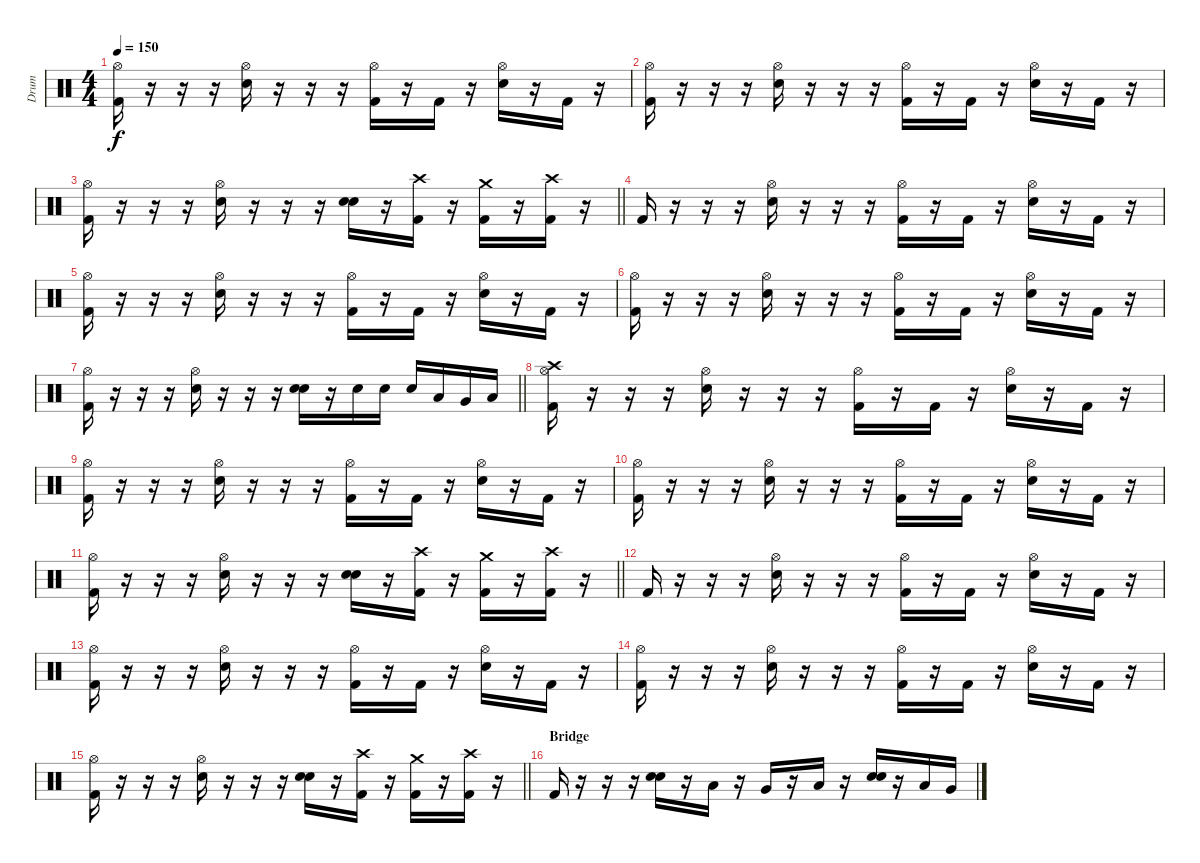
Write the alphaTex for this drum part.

\track ("Drum" "Drum") {instrument percussion}
\staff {score}
\articulation defaults
\ts (4 4)
\tempo 150
\clef neutral
\ks c
("Hi-Hat (open)" "Kick (hit) 2").16{dy f} r.16 r.16 r.16 ("Hi-Hat (open)" "Electric Snare (hit)").16 r.16 r.16 r.16 ("Hi-Hat (open)" "Kick (hit) 2").16 r.16 "Kick (hit) 2".16 r.16 ("Hi-Hat (open)" "Electric Snare (hit)").16 r.16 "Kick (hit) 2".16 r.16 |
("Hi-Hat (open)" "Kick (hit) 2").16 r.16 r.16 r.16 ("Hi-Hat (open)" "Electric Snare (hit)").16 r.16 r.16 r.16 ("Hi-Hat (open)" "Kick (hit) 2").16 r.16 "Kick (hit) 2".16 r.16 ("Hi-Hat (open)" "Electric Snare (hit)").16 r.16 "Kick (hit) 2".16 r.16 |
\barLineRight lightlight
("Hi-Hat (open)" "Kick (hit) 2").16 r.16 r.16 r.16 ("Hi-Hat (open)" "Electric Snare (hit)").16 r.16 r.16 r.16 ("Electric Snare (hit)" "Electric Snare (hit)").16 r.16 ("Crash high (hit)" "Kick (hit) 2").16 r.16 ("Crash medium (hit)" "Kick (hit) 2").16 r.16 ("Crash high (hit)" "Kick (hit) 2").16 r.16 |
"Kick (hit) 2".16 r.16 r.16 r.16 ("Hi-Hat (open)" "Electric Snare (hit)").16 r.16 r.16 r.16 ("Hi-Hat (open)" "Kick (hit) 2").16 r.16 "Kick (hit) 2".16 r.16 ("Hi-Hat (open)" "Electric Snare (hit)").16 r.16 "Kick (hit) 2".16 r.16 |
("Hi-Hat (open)" "Kick (hit) 2").16 r.16 r.16 r.16 ("Hi-Hat (open)" "Electric Snare (hit)").16 r.16 r.16 r.16 ("Hi-Hat (open)" "Kick (hit) 2").16 r.16 "Kick (hit) 2".16 r.16 ("Hi-Hat (open)" "Electric Snare (hit)").16 r.16 "Kick (hit) 2".16 r.16 |
("Hi-Hat (open)" "Kick (hit) 2").16 r.16 r.16 r.16 ("Hi-Hat (open)" "Electric Snare (hit)").16 r.16 r.16 r.16 ("Hi-Hat (open)" "Kick (hit) 2").16 r.16 "Kick (hit) 2".16 r.16 ("Hi-Hat (open)" "Electric Snare (hit)").16 r.16 "Kick (hit) 2".16 r.16 |
\barLineRight lightlight
("Hi-Hat (open)" "Kick (hit) 2").16 r.16 r.16 r.16 ("Hi-Hat (open)" "Electric Snare (hit)").16 r.16 r.16 r.16 ("Electric Snare (hit)" "Electric Snare (hit)").16 r.16 "Electric Snare (hit)".16 "Electric Snare (hit)".16 "Electric Snare (hit)".16 "Low Floor Tom (hit)".16 "Very Low Tom (hit)".16 "Low Floor Tom (hit)".16 |
("Hi-Hat (open)" "Crash high (hit)" "Kick (hit) 2").16 r.16 r.16 r.16 ("Hi-Hat (open)" "Electric Snare (hit)").16 r.16 r.16 r.16 ("Hi-Hat (open)" "Kick (hit) 2").16 r.16 "Kick (hit) 2".16 r.16 ("Hi-Hat (open)" "Electric Snare (hit)").16 r.16 "Kick (hit) 2".16 r.16 |
("Hi-Hat (open)" "Kick (hit) 2").16 r.16 r.16 r.16 ("Hi-Hat (open)" "Electric Snare (hit)").16 r.16 r.16 r.16 ("Hi-Hat (open)" "Kick (hit) 2").16 r.16 "Kick (hit) 2".16 r.16 ("Hi-Hat (open)" "Electric Snare (hit)").16 r.16 "Kick (hit) 2".16 r.16 |
("Hi-Hat (open)" "Kick (hit) 2").16 r.16 r.16 r.16 ("Hi-Hat (open)" "Electric Snare (hit)").16 r.16 r.16 r.16 ("Hi-Hat (open)" "Kick (hit) 2").16 r.16 "Kick (hit) 2".16 r.16 ("Hi-Hat (open)" "Electric Snare (hit)").16 r.16 "Kick (hit) 2".16 r.16 |
\barLineRight lightlight
("Hi-Hat (open)" "Kick (hit) 2").16 r.16 r.16 r.16 ("Hi-Hat (open)" "Electric Snare (hit)").16 r.16 r.16 r.16 ("Electric Snare (hit)" "Electric Snare (hit)").16 r.16 ("Crash high (hit)" "Kick (hit) 2").16 r.16 ("Crash medium (hit)" "Kick (hit) 2").16 r.16 ("Crash high (hit)" "Kick (hit) 2").16 r.16 |
"Kick (hit) 2".16 r.16 r.16 r.16 ("Hi-Hat (open)" "Electric Snare (hit)").16 r.16 r.16 r.16 ("Hi-Hat (open)" "Kick (hit) 2").16 r.16 "Kick (hit) 2".16 r.16 ("Hi-Hat (open)" "Electric Snare (hit)").16 r.16 "Kick (hit) 2".16 r.16 |
("Hi-Hat (open)" "Kick (hit) 2").16 r.16 r.16 r.16 ("Hi-Hat (open)" "Electric Snare (hit)").16 r.16 r.16 r.16 ("Hi-Hat (open)" "Kick (hit) 2").16 r.16 "Kick (hit) 2".16 r.16 ("Hi-Hat (open)" "Electric Snare (hit)").16 r.16 "Kick (hit) 2".16 r.16 |
("Hi-Hat (open)" "Kick (hit) 2").16 r.16 r.16 r.16 ("Hi-Hat (open)" "Electric Snare (hit)").16 r.16 r.16 r.16 ("Hi-Hat (open)" "Kick (hit) 2").16 r.16 "Kick (hit) 2".16 r.16 ("Hi-Hat (open)" "Electric Snare (hit)").16 r.16 "Kick (hit) 2".16 r.16 |
\barLineRight lightlight
("Hi-Hat (open)" "Kick (hit) 2").16 r.16 r.16 r.16 ("Hi-Hat (open)" "Electric Snare (hit)").16 r.16 r.16 r.16 ("Electric Snare (hit)" "Electric Snare (hit)").16 r.16 ("Crash high (hit)" "Kick (hit) 2").16 r.16 ("Crash medium (hit)" "Kick (hit) 2").16 r.16 ("Crash high (hit)" "Kick (hit) 2").16 r.16 |
\section ("" "Bridge")
"Kick (hit) 2".16 r.16 r.16 r.16 ("Electric Snare (hit)" "Electric Snare (hit)").16 r.16 "Low Floor Tom (hit)".16 r.16 "Very Low Tom (hit)".16 r.16 "Low Floor Tom (hit)".16 r.16 ("Electric Snare (hit)" "Electric Snare (hit)").16 r.16 "Low Floor Tom (hit)".16 "Very Low Tom (hit)".16
